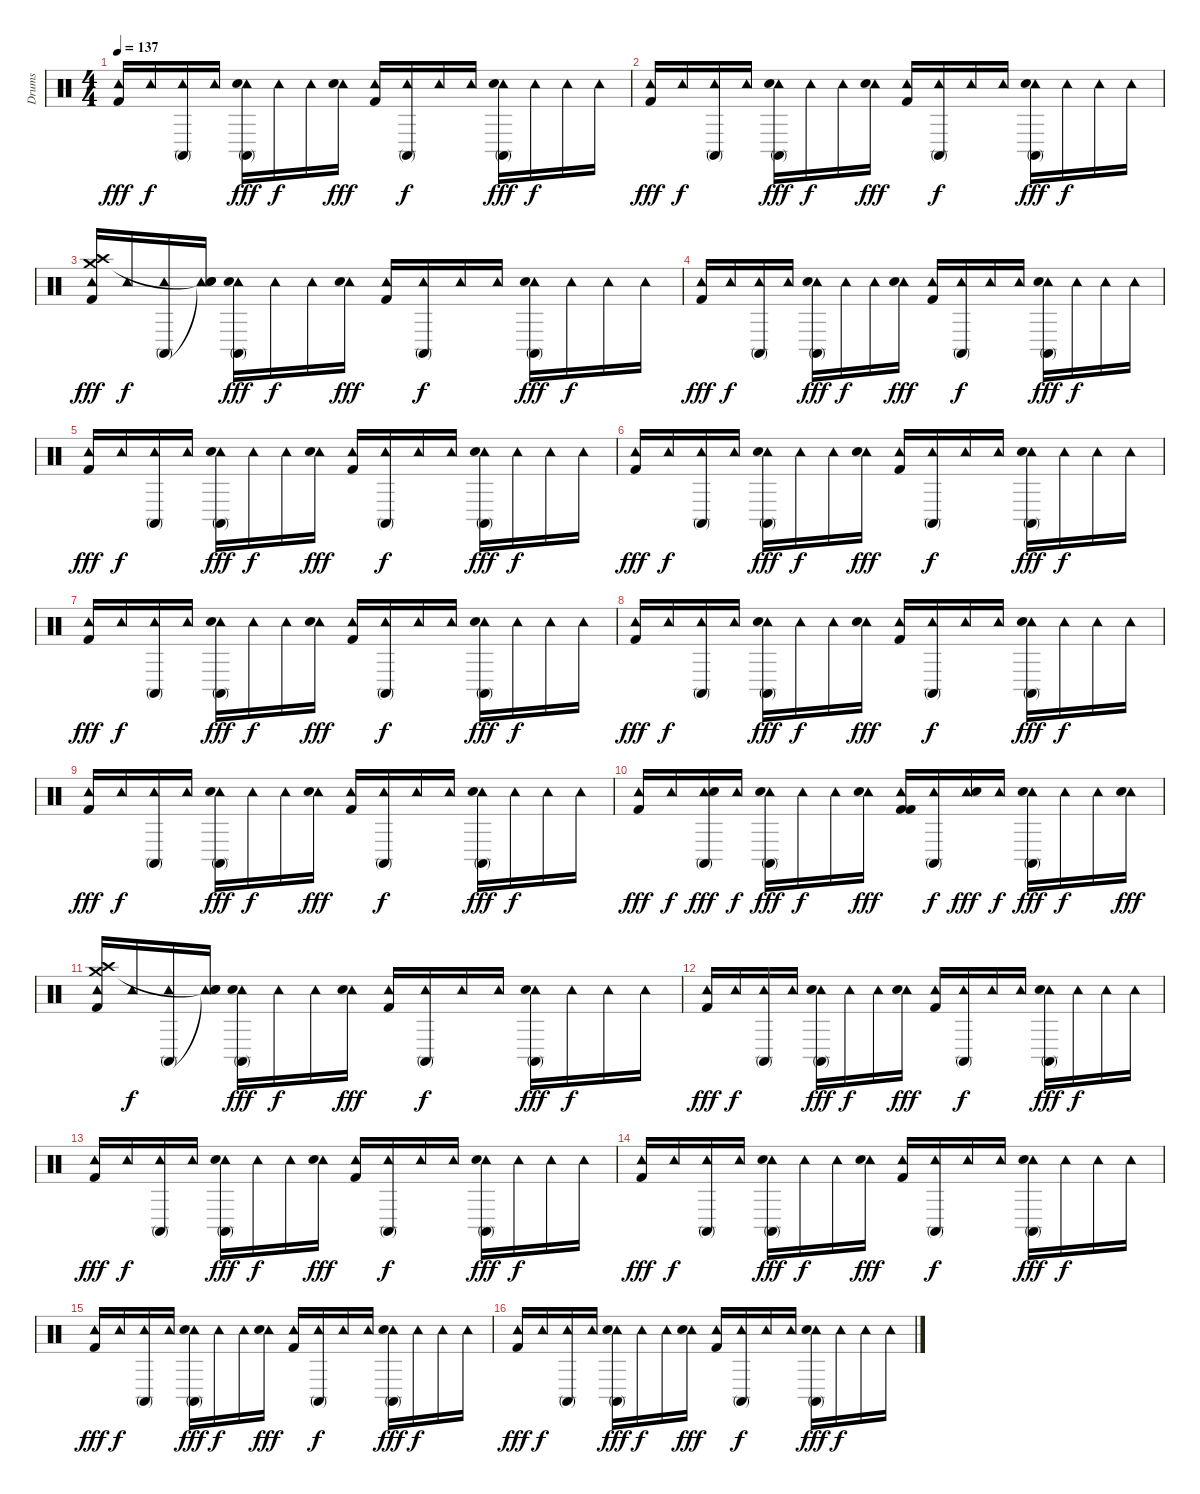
\track ("Drums" "Drums") {instrument percussion}
\staff {score}
\articulation defaults
\ts (4 4)
\tempo 137
\clef neutral
\ks c
("Tambourine (hit)" "Kick (hit) 2").16{dy fff} "Tambourine (hit)".16{dy f} ("Tambourine (hit)" "Conga high (mute)").16 "Tambourine (hit)".16 ("Tambourine (hit)" "Conga high (mute)" "Electric Snare (hit)").16{dy fff} "Tambourine (hit)".16{dy f} "Tambourine (hit)".16 ("Tambourine (hit)" "Electric Snare (hit)").16{dy fff} ("Tambourine (hit)" "Kick (hit) 2").16 ("Tambourine (hit)" "Conga high (mute)").16{dy f} "Tambourine (hit)".16 "Tambourine (hit)".16 ("Tambourine (hit)" "Conga high (mute)" "Electric Snare (hit)").16{dy fff} "Tambourine (hit)".16{dy f} "Tambourine (hit)".16 "Tambourine (hit)".16 |
("Tambourine (hit)" "Kick (hit) 2").16{dy fff} "Tambourine (hit)".16{dy f} ("Tambourine (hit)" "Conga high (mute)").16 "Tambourine (hit)".16 ("Tambourine (hit)" "Conga high (mute)" "Electric Snare (hit)").16{dy fff} "Tambourine (hit)".16{dy f} "Tambourine (hit)".16 ("Tambourine (hit)" "Electric Snare (hit)").16{dy fff} ("Tambourine (hit)" "Kick (hit) 2").16 ("Tambourine (hit)" "Conga high (mute)").16{dy f} "Tambourine (hit)".16 "Tambourine (hit)".16 ("Tambourine (hit)" "Conga high (mute)" "Electric Snare (hit)").16{dy fff} "Tambourine (hit)".16{dy f} "Tambourine (hit)".16 "Tambourine (hit)".16 |
("Tambourine (hit)" "Crash high (hit)" "Crash medium (hit)" "Kick (hit) 2").16{dy fff} "Tambourine (hit)".16{dy f} ("Tambourine (hit)" "Conga high (mute)").16 ("Tambourine (hit)" "Snare (hit)"{t} "Snare (hit)"{t}).16 ("Tambourine (hit)" "Conga high (mute)" "Electric Snare (hit)").16{dy fff} "Tambourine (hit)".16{dy f} "Tambourine (hit)".16 ("Tambourine (hit)" "Electric Snare (hit)").16{dy fff} ("Tambourine (hit)" "Kick (hit) 2").16 ("Tambourine (hit)" "Conga high (mute)").16{dy f} "Tambourine (hit)".16 "Tambourine (hit)".16 ("Tambourine (hit)" "Conga high (mute)" "Electric Snare (hit)").16{dy fff} "Tambourine (hit)".16{dy f} "Tambourine (hit)".16 "Tambourine (hit)".16 |
("Tambourine (hit)" "Kick (hit) 2").16{dy fff} "Tambourine (hit)".16{dy f} ("Tambourine (hit)" "Conga high (mute)").16 "Tambourine (hit)".16 ("Tambourine (hit)" "Conga high (mute)" "Electric Snare (hit)").16{dy fff} "Tambourine (hit)".16{dy f} "Tambourine (hit)".16 ("Tambourine (hit)" "Electric Snare (hit)").16{dy fff} ("Tambourine (hit)" "Kick (hit) 2").16 ("Tambourine (hit)" "Conga high (mute)").16{dy f} "Tambourine (hit)".16 "Tambourine (hit)".16 ("Tambourine (hit)" "Conga high (mute)" "Electric Snare (hit)").16{dy fff} "Tambourine (hit)".16{dy f} "Tambourine (hit)".16 "Tambourine (hit)".16 |
("Tambourine (hit)" "Kick (hit) 2").16{dy fff} "Tambourine (hit)".16{dy f} ("Tambourine (hit)" "Conga high (mute)").16 "Tambourine (hit)".16 ("Tambourine (hit)" "Conga high (mute)" "Electric Snare (hit)").16{dy fff} "Tambourine (hit)".16{dy f} "Tambourine (hit)".16 ("Tambourine (hit)" "Electric Snare (hit)").16{dy fff} ("Tambourine (hit)" "Kick (hit) 2").16 ("Tambourine (hit)" "Conga high (mute)").16{dy f} "Tambourine (hit)".16 "Tambourine (hit)".16 ("Tambourine (hit)" "Conga high (mute)" "Electric Snare (hit)").16{dy fff} "Tambourine (hit)".16{dy f} "Tambourine (hit)".16 "Tambourine (hit)".16 |
("Tambourine (hit)" "Kick (hit) 2").16{dy fff} "Tambourine (hit)".16{dy f} ("Tambourine (hit)" "Conga high (mute)").16 "Tambourine (hit)".16 ("Tambourine (hit)" "Conga high (mute)" "Electric Snare (hit)").16{dy fff} "Tambourine (hit)".16{dy f} "Tambourine (hit)".16 ("Tambourine (hit)" "Electric Snare (hit)").16{dy fff} ("Tambourine (hit)" "Kick (hit) 2").16 ("Tambourine (hit)" "Conga high (mute)").16{dy f} "Tambourine (hit)".16 "Tambourine (hit)".16 ("Tambourine (hit)" "Conga high (mute)" "Electric Snare (hit)").16{dy fff} "Tambourine (hit)".16{dy f} "Tambourine (hit)".16 "Tambourine (hit)".16 |
("Tambourine (hit)" "Kick (hit) 2").16{dy fff} "Tambourine (hit)".16{dy f} ("Tambourine (hit)" "Conga high (mute)").16 "Tambourine (hit)".16 ("Tambourine (hit)" "Conga high (mute)" "Electric Snare (hit)").16{dy fff} "Tambourine (hit)".16{dy f} "Tambourine (hit)".16 ("Tambourine (hit)" "Electric Snare (hit)").16{dy fff} ("Tambourine (hit)" "Kick (hit) 2").16 ("Tambourine (hit)" "Conga high (mute)").16{dy f} "Tambourine (hit)".16 "Tambourine (hit)".16 ("Tambourine (hit)" "Conga high (mute)" "Electric Snare (hit)").16{dy fff} "Tambourine (hit)".16{dy f} "Tambourine (hit)".16 "Tambourine (hit)".16 |
("Tambourine (hit)" "Kick (hit) 2").16{dy fff} "Tambourine (hit)".16{dy f} ("Tambourine (hit)" "Conga high (mute)").16 "Tambourine (hit)".16 ("Tambourine (hit)" "Conga high (mute)" "Electric Snare (hit)").16{dy fff} "Tambourine (hit)".16{dy f} "Tambourine (hit)".16 ("Tambourine (hit)" "Electric Snare (hit)").16{dy fff} ("Tambourine (hit)" "Kick (hit) 2").16 ("Tambourine (hit)" "Conga high (mute)").16{dy f} "Tambourine (hit)".16 "Tambourine (hit)".16 ("Tambourine (hit)" "Conga high (mute)" "Electric Snare (hit)").16{dy fff} "Tambourine (hit)".16{dy f} "Tambourine (hit)".16 "Tambourine (hit)".16 |
("Tambourine (hit)" "Kick (hit) 2").16{dy fff} "Tambourine (hit)".16{dy f} ("Tambourine (hit)" "Conga high (mute)").16 "Tambourine (hit)".16 ("Tambourine (hit)" "Conga high (mute)" "Electric Snare (hit)").16{dy fff} "Tambourine (hit)".16{dy f} "Tambourine (hit)".16 ("Tambourine (hit)" "Electric Snare (hit)").16{dy fff} ("Tambourine (hit)" "Kick (hit) 2").16 ("Tambourine (hit)" "Conga high (mute)").16{dy f} "Tambourine (hit)".16 "Tambourine (hit)".16 ("Tambourine (hit)" "Conga high (mute)" "Electric Snare (hit)").16{dy fff} "Tambourine (hit)".16{dy f} "Tambourine (hit)".16 "Tambourine (hit)".16 |
("Tambourine (hit)" "Kick (hit) 2").16{dy fff} "Tambourine (hit)".16{dy f} ("Tambourine (hit)" "Conga high (mute)" "Electric Snare (hit)").16{dy fff} "Tambourine (hit)".16{dy f} ("Tambourine (hit)" "Conga high (mute)" "Electric Snare (hit)").16{dy fff} "Tambourine (hit)".16{dy f} "Tambourine (hit)".16 ("Tambourine (hit)" "Electric Snare (hit)").16{dy fff} ("Tambourine (hit)" "Kick (hit) 2" "Kick (hit) 2").16 ("Tambourine (hit)" "Conga high (mute)").16{dy f} ("Tambourine (hit)" "Electric Snare (hit)").16{dy fff} "Tambourine (hit)".16{dy f} ("Tambourine (hit)" "Conga high (mute)" "Electric Snare (hit)").16{dy fff} "Tambourine (hit)".16{dy f} "Tambourine (hit)".16 ("Tambourine (hit)" "Electric Snare (hit)").16{dy fff} |
("Tambourine (hit)" "Crash high (hit)" "Crash medium (hit)" "Kick (hit) 2").16 "Tambourine (hit)".16{dy f} ("Tambourine (hit)" "Conga high (mute)").16 ("Tambourine (hit)" "Snare (hit)"{t} "Snare (hit)"{t}).16 ("Tambourine (hit)" "Conga high (mute)" "Electric Snare (hit)").16{dy fff} "Tambourine (hit)".16{dy f} "Tambourine (hit)".16 ("Tambourine (hit)" "Electric Snare (hit)").16{dy fff} ("Tambourine (hit)" "Kick (hit) 2").16 ("Tambourine (hit)" "Conga high (mute)").16{dy f} "Tambourine (hit)".16 "Tambourine (hit)".16 ("Tambourine (hit)" "Conga high (mute)" "Electric Snare (hit)").16{dy fff} "Tambourine (hit)".16{dy f} "Tambourine (hit)".16 "Tambourine (hit)".16 |
("Tambourine (hit)" "Kick (hit) 2").16{dy fff} "Tambourine (hit)".16{dy f} ("Tambourine (hit)" "Conga high (mute)").16 "Tambourine (hit)".16 ("Tambourine (hit)" "Conga high (mute)" "Electric Snare (hit)").16{dy fff} "Tambourine (hit)".16{dy f} "Tambourine (hit)".16 ("Tambourine (hit)" "Electric Snare (hit)").16{dy fff} ("Tambourine (hit)" "Kick (hit) 2").16 ("Tambourine (hit)" "Conga high (mute)").16{dy f} "Tambourine (hit)".16 "Tambourine (hit)".16 ("Tambourine (hit)" "Conga high (mute)" "Electric Snare (hit)").16{dy fff} "Tambourine (hit)".16{dy f} "Tambourine (hit)".16 "Tambourine (hit)".16 |
("Tambourine (hit)" "Kick (hit) 2").16{dy fff} "Tambourine (hit)".16{dy f} ("Tambourine (hit)" "Conga high (mute)").16 "Tambourine (hit)".16 ("Tambourine (hit)" "Conga high (mute)" "Electric Snare (hit)").16{dy fff} "Tambourine (hit)".16{dy f} "Tambourine (hit)".16 ("Tambourine (hit)" "Electric Snare (hit)").16{dy fff} ("Tambourine (hit)" "Kick (hit) 2").16 ("Tambourine (hit)" "Conga high (mute)").16{dy f} "Tambourine (hit)".16 "Tambourine (hit)".16 ("Tambourine (hit)" "Conga high (mute)" "Electric Snare (hit)").16{dy fff} "Tambourine (hit)".16{dy f} "Tambourine (hit)".16 "Tambourine (hit)".16 |
("Tambourine (hit)" "Kick (hit) 2").16{dy fff} "Tambourine (hit)".16{dy f} ("Tambourine (hit)" "Conga high (mute)").16 "Tambourine (hit)".16 ("Tambourine (hit)" "Conga high (mute)" "Electric Snare (hit)").16{dy fff} "Tambourine (hit)".16{dy f} "Tambourine (hit)".16 ("Tambourine (hit)" "Electric Snare (hit)").16{dy fff} ("Tambourine (hit)" "Kick (hit) 2").16 ("Tambourine (hit)" "Conga high (mute)").16{dy f} "Tambourine (hit)".16 "Tambourine (hit)".16 ("Tambourine (hit)" "Conga high (mute)" "Electric Snare (hit)").16{dy fff} "Tambourine (hit)".16{dy f} "Tambourine (hit)".16 "Tambourine (hit)".16 |
("Tambourine (hit)" "Kick (hit) 2").16{dy fff} "Tambourine (hit)".16{dy f} ("Tambourine (hit)" "Conga high (mute)").16 "Tambourine (hit)".16 ("Tambourine (hit)" "Conga high (mute)" "Electric Snare (hit)").16{dy fff} "Tambourine (hit)".16{dy f} "Tambourine (hit)".16 ("Tambourine (hit)" "Electric Snare (hit)").16{dy fff} ("Tambourine (hit)" "Kick (hit) 2").16 ("Tambourine (hit)" "Conga high (mute)").16{dy f} "Tambourine (hit)".16 "Tambourine (hit)".16 ("Tambourine (hit)" "Conga high (mute)" "Electric Snare (hit)").16{dy fff} "Tambourine (hit)".16{dy f} "Tambourine (hit)".16 "Tambourine (hit)".16 |
("Tambourine (hit)" "Kick (hit) 2").16{dy fff} "Tambourine (hit)".16{dy f} ("Tambourine (hit)" "Conga high (mute)").16 "Tambourine (hit)".16 ("Tambourine (hit)" "Conga high (mute)" "Electric Snare (hit)").16{dy fff} "Tambourine (hit)".16{dy f} "Tambourine (hit)".16 ("Tambourine (hit)" "Electric Snare (hit)").16{dy fff} ("Tambourine (hit)" "Kick (hit) 2").16 ("Tambourine (hit)" "Conga high (mute)").16{dy f} "Tambourine (hit)".16 "Tambourine (hit)".16 ("Tambourine (hit)" "Conga high (mute)" "Electric Snare (hit)").16{dy fff} "Tambourine (hit)".16{dy f} "Tambourine (hit)".16 "Tambourine (hit)".16
